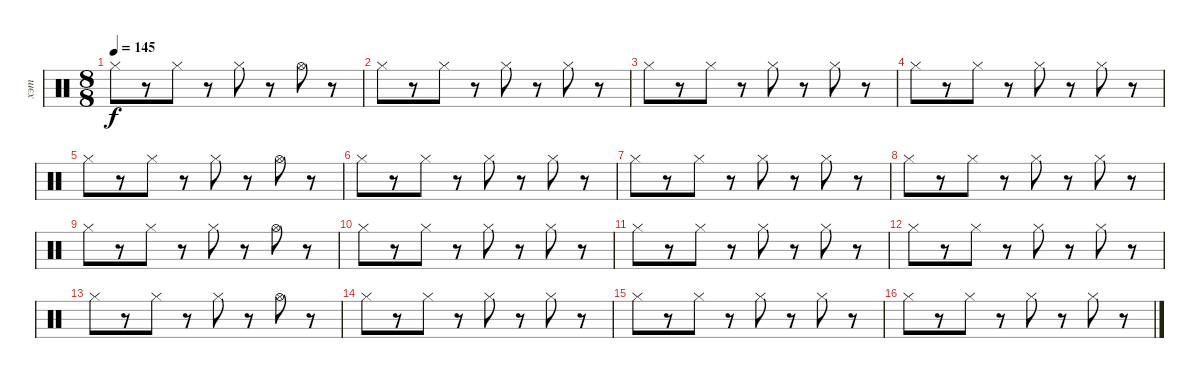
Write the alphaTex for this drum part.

\track ("хэт" "хэт") {instrument percussion}
\staff {score}
\articulation defaults
\ts (8 8)
\tempo 145
\clef neutral
\ks c "Hi-Hat (closed)".8{dy f}
r.8 "Hi-Hat (closed)".8 r.8 "Hi-Hat (closed)".8 r.8 "Hi-Hat (open)".8 r.8 |
"Hi-Hat (closed)".8 r.8 "Hi-Hat (closed)".8 r.8 "Hi-Hat (closed)".8 r.8 "Hi-Hat (closed)".8 r.8 |
"Hi-Hat (closed)".8 r.8 "Hi-Hat (closed)".8 r.8 "Hi-Hat (closed)".8 r.8 "Hi-Hat (closed)".8 r.8 |
"Hi-Hat (closed)".8 r.8 "Hi-Hat (closed)".8 r.8 "Hi-Hat (closed)".8 r.8 "Hi-Hat (closed)".8 r.8 |
"Hi-Hat (closed)".8 r.8 "Hi-Hat (closed)".8 r.8 "Hi-Hat (closed)".8 r.8 "Hi-Hat (open)".8 r.8 |
"Hi-Hat (closed)".8 r.8 "Hi-Hat (closed)".8 r.8 "Hi-Hat (closed)".8 r.8 "Hi-Hat (closed)".8 r.8 |
"Hi-Hat (closed)".8 r.8 "Hi-Hat (closed)".8 r.8 "Hi-Hat (closed)".8 r.8 "Hi-Hat (closed)".8 r.8 |
"Hi-Hat (closed)".8 r.8 "Hi-Hat (closed)".8 r.8 "Hi-Hat (closed)".8 r.8 "Hi-Hat (closed)".8 r.8 |
"Hi-Hat (closed)".8 r.8 "Hi-Hat (closed)".8 r.8 "Hi-Hat (closed)".8 r.8 "Hi-Hat (open)".8 r.8 |
"Hi-Hat (closed)".8 r.8 "Hi-Hat (closed)".8 r.8 "Hi-Hat (closed)".8 r.8 "Hi-Hat (closed)".8 r.8 |
"Hi-Hat (closed)".8 r.8 "Hi-Hat (closed)".8 r.8 "Hi-Hat (closed)".8 r.8 "Hi-Hat (closed)".8 r.8 |
"Hi-Hat (closed)".8 r.8 "Hi-Hat (closed)".8 r.8 "Hi-Hat (closed)".8 r.8 "Hi-Hat (closed)".8 r.8 |
"Hi-Hat (closed)".8 r.8 "Hi-Hat (closed)".8 r.8 "Hi-Hat (closed)".8 r.8 "Hi-Hat (open)".8 r.8 |
"Hi-Hat (closed)".8 r.8 "Hi-Hat (closed)".8 r.8 "Hi-Hat (closed)".8 r.8 "Hi-Hat (closed)".8 r.8 |
"Hi-Hat (closed)".8 r.8 "Hi-Hat (closed)".8 r.8 "Hi-Hat (closed)".8 r.8 "Hi-Hat (closed)".8 r.8 |
"Hi-Hat (closed)".8 r.8 "Hi-Hat (closed)".8 r.8 "Hi-Hat (closed)".8 r.8 "Hi-Hat (closed)".8 r.8
